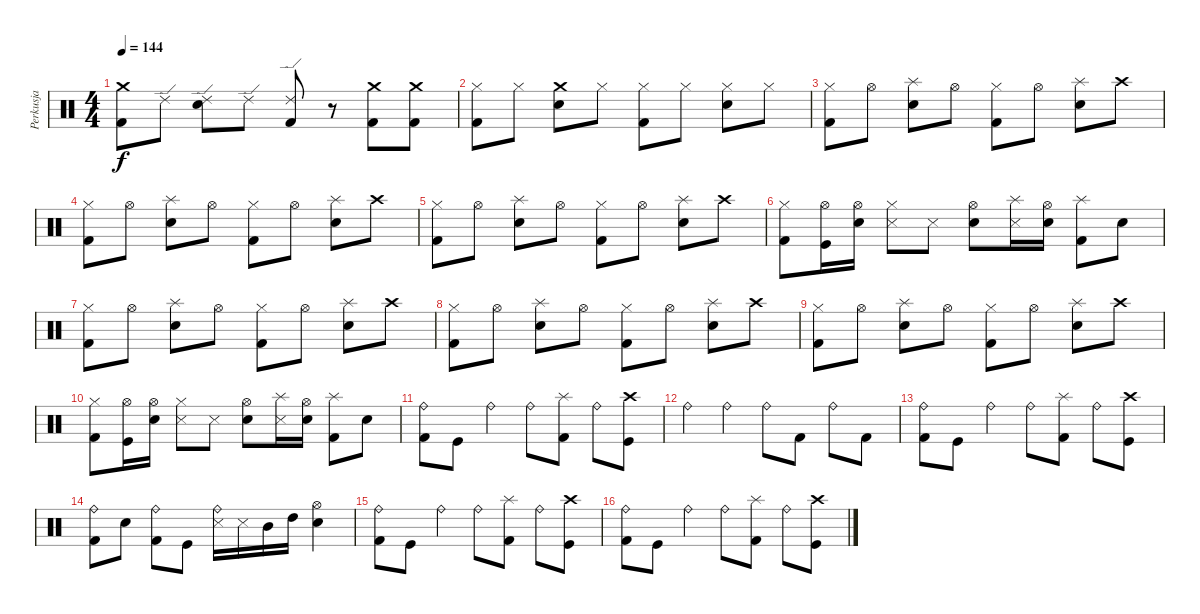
\track ("Perkusja" "Perkusja") {instrument percussion}
\staff {score}
\articulation defaults
\ts (4 4)
\tempo 144
\clef neutral
\ks c
("Crash medium (hit)" "Kick (hit) 2").8{dy f} "Ride (edge) 2".8 ("Snare (hit) 2" "Ride (edge) 2").8 "Ride (edge) 2".8 ("Ride (edge) 2" "Kick (hit) 2").8 r.8 ("Crash medium (hit)" "Kick (hit) 2").8 ("Crash medium (hit)" "Kick (hit) 2").8 |
("Hi-Hat (closed)" "Kick (hit) 2").8 "Hi-Hat (closed)".8 ("Crash medium (hit)" "Snare (hit) 2").8 "Hi-Hat (closed)".8 ("Hi-Hat (closed)" "Kick (hit) 2").8 "Hi-Hat (closed)".8 ("Snare (hit) 2" "Hi-Hat (closed)").8 "Hi-Hat (closed)".8 |
("Kick (hit) 2" "Hi-Hat (closed)").8 "Hi-Hat (open)".8 ("Snare (hit) 2" "Splash (hit)").8 "Hi-Hat (open)".8 ("Kick (hit) 2" "Hi-Hat (closed)").8 "Hi-Hat (open)".8 ("Snare (hit) 2" "Splash (hit)").8 "Crash high (hit)".8 |
("Kick (hit) 2" "Hi-Hat (closed)").8 "Hi-Hat (open)".8 ("Snare (hit) 2" "Splash (hit)").8 "Hi-Hat (open)".8 ("Kick (hit) 2" "Hi-Hat (closed)").8 "Hi-Hat (open)".8 ("Snare (hit) 2" "Splash (hit)").8 "Crash high (hit)".8 |
("Kick (hit) 2" "Hi-Hat (closed)").8 "Hi-Hat (open)".8 ("Snare (hit) 2" "Splash (hit)").8 "Hi-Hat (open)".8 ("Kick (hit) 2" "Hi-Hat (closed)").8 "Hi-Hat (open)".8 ("Snare (hit) 2" "Splash (hit)").8 "Crash high (hit)".8 |
("Kick (hit) 2" "Hi-Hat (closed)").8 ("Hi-Hat (open)" "Kick (hit)").16 ("Snare (hit) 2" "Hi-Hat (open)").16 ("Snare (side stick) 3" "Hi-Hat (closed)").8 "Snare (side stick) 3".8 ("Snare (hit) 2" "Hi-Hat (open)").8 ("Snare (side stick) 3" "Splash (hit)").16 ("Snare (hit) 2" "Hi-Hat (open)").16 ("Kick (hit) 2" "Splash (hit)").8 "Snare (hit) 2".8 |
("Kick (hit) 2" "Hi-Hat (closed)").8 "Hi-Hat (open)".8 ("Snare (hit) 2" "Splash (hit)").8 "Hi-Hat (open)".8 ("Kick (hit) 2" "Hi-Hat (closed)").8 "Hi-Hat (open)".8 ("Snare (hit) 2" "Splash (hit)").8 "Crash high (hit)".8 |
("Kick (hit) 2" "Hi-Hat (closed)").8 "Hi-Hat (open)".8 ("Snare (hit) 2" "Splash (hit)").8 "Hi-Hat (open)".8 ("Kick (hit) 2" "Hi-Hat (closed)").8 "Hi-Hat (open)".8 ("Snare (hit) 2" "Splash (hit)").8 "Crash high (hit)".8 |
("Kick (hit) 2" "Hi-Hat (closed)").8 "Hi-Hat (open)".8 ("Snare (hit) 2" "Splash (hit)").8 "Hi-Hat (open)".8 ("Kick (hit) 2" "Hi-Hat (closed)").8 "Hi-Hat (open)".8 ("Snare (hit) 2" "Splash (hit)").8 "Crash high (hit)".8 |
("Kick (hit) 2" "Hi-Hat (closed)").8 ("Hi-Hat (open)" "Kick (hit)").16 ("Snare (hit) 2" "Hi-Hat (open)").16 ("Snare (side stick) 3" "Hi-Hat (closed)").8 "Snare (side stick) 3".8 ("Snare (hit) 2" "Hi-Hat (open)").8 ("Snare (side stick) 3" "Splash (hit)").16 ("Snare (hit) 2" "Hi-Hat (open)").16 ("Kick (hit) 2" "Splash (hit)").8 "Snare (hit) 2".8 |
("Ride (bell)" "Kick (hit) 2").8 "Kick (hit)".8 "Ride (bell)".4 "Ride (bell)".8 ("Splash (hit)" "Kick (hit) 2").8 "Ride (bell)".8 ("Crash high (hit)" "Kick (hit)").8 |
"Ride (bell)".4 "Ride (bell)".4 "Ride (bell)".8 "Kick (hit) 2".8 "Ride (bell)".8 "Kick (hit) 2".8 |
("Ride (bell)" "Kick (hit) 2").8 "Kick (hit)".8 "Ride (bell)".4 "Ride (bell)".8 ("Splash (hit)" "Kick (hit) 2").8 "Ride (bell)".8 ("Crash high (hit)" "Kick (hit)").8 |
("Ride (bell)" "Kick (hit) 2").8 "Snare (hit) 2".8 ("Ride (bell)" "Kick (hit) 2").8 "Kick (hit)".8 ("Ride (bell)" "Snare (side stick) 3").16 "Snare (side stick) 3".16 "Mid Tom (hit)".16 "High Tom (hit)".16 ("Hi-Hat (open)" "Snare (hit) 2").4 |
("Ride (bell)" "Kick (hit) 2").8 "Kick (hit)".8 "Ride (bell)".4 "Ride (bell)".8 ("Splash (hit)" "Kick (hit) 2").8 "Ride (bell)".8 ("Crash high (hit)" "Kick (hit)").8 |
("Ride (bell)" "Kick (hit) 2").8 "Kick (hit)".8 "Ride (bell)".4 "Ride (bell)".8 ("Splash (hit)" "Kick (hit) 2").8 "Ride (bell)".8 ("Crash high (hit)" "Kick (hit)").8
